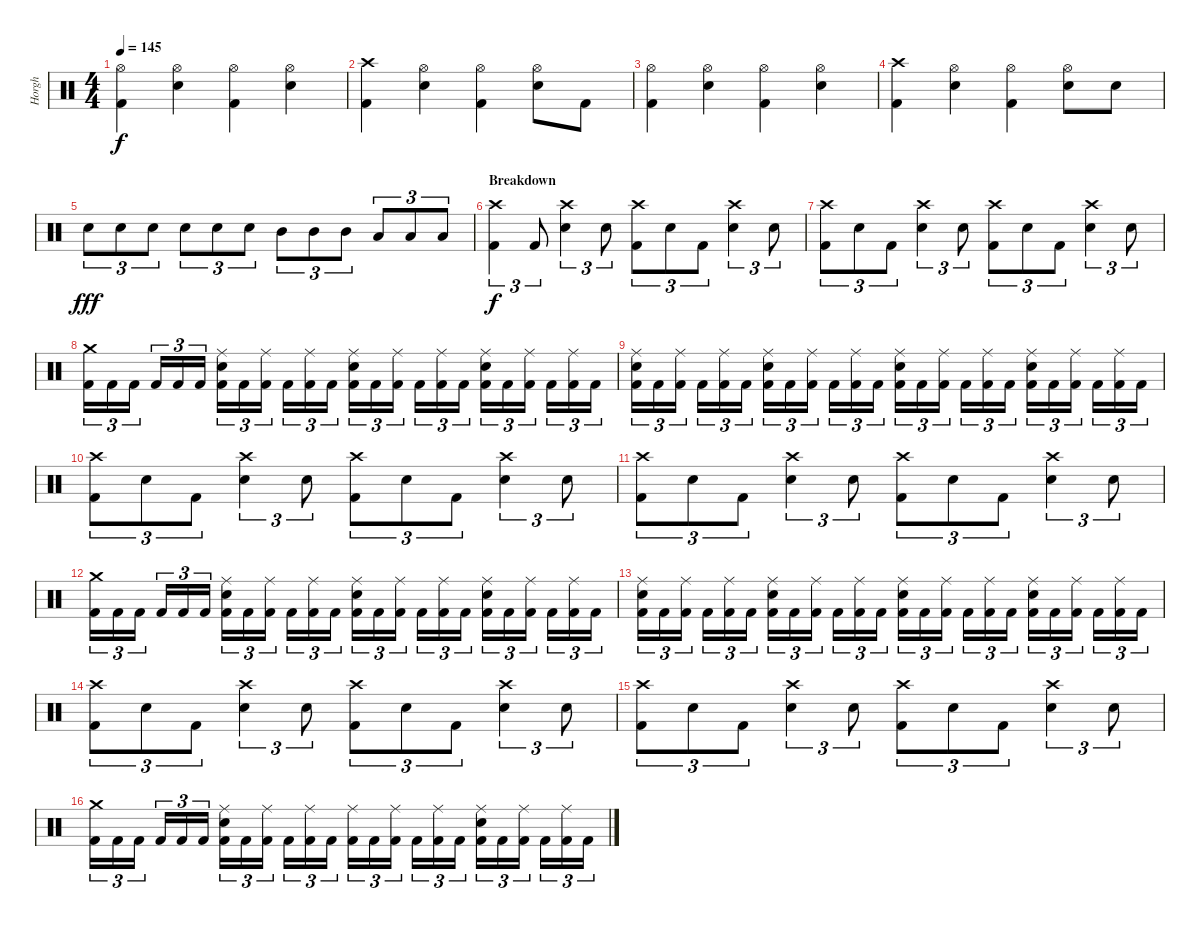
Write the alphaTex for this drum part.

\track ("Horgh" "Horgh") {instrument percussion}
\staff {score}
\articulation defaults
\ts (4 4)
\tempo 145
\clef neutral
\ks c
("Hi-Hat (open)" "Kick (hit) 2").4{dy f} ("Hi-Hat (open)" "Electric Snare (hit)").4 ("Hi-Hat (open)" "Kick (hit) 2").4 ("Hi-Hat (open)" "Electric Snare (hit)").4 |
("Crash high (hit)" "Kick (hit) 2").4 ("Hi-Hat (open)" "Electric Snare (hit)").4 ("Hi-Hat (open)" "Kick (hit) 2").4 ("Hi-Hat (open)" "Electric Snare (hit)").8 "Kick (hit) 2".8 |
("Hi-Hat (open)" "Kick (hit) 2").4 ("Hi-Hat (open)" "Electric Snare (hit)").4 ("Hi-Hat (open)" "Kick (hit) 2").4 ("Hi-Hat (open)" "Electric Snare (hit)").4 |
("Crash high (hit)" "Kick (hit) 2").4 ("Hi-Hat (open)" "Electric Snare (hit)").4 ("Hi-Hat (open)" "Kick (hit) 2").4 ("Hi-Hat (open)" "Electric Snare (hit)").8 "Electric Snare (hit)".8 |
"Electric Snare (hit)".8{tu (3 2) dy fff} "Electric Snare (hit)".8{tu (3 2)} "Electric Snare (hit)".8{tu (3 2)} "Electric Snare (hit)".8{tu (3 2)} "Electric Snare (hit)".8{tu (3 2)} "Electric Snare (hit)".8{tu (3 2)} "Mid Tom (hit)".8{tu (3 2)} "Mid Tom (hit)".8{tu (3 2)} "Mid Tom (hit)".8{tu (3 2)} "Low Tom (hit)".8{tu (3 2)} "Low Tom (hit)".8{tu (3 2)} "Low Tom (hit)".8{tu (3 2)} |
\section ("" "Breakdown")
("Crash high (hit)" "Kick (hit) 2").4{tu (3 2) dy f} "Kick (hit) 2".8{tu (3 2)} ("Crash high (hit)" "Electric Snare (hit)").4{tu (3 2)} "Electric Snare (hit)".8{tu (3 2)} ("Crash high (hit)" "Kick (hit) 2").8{tu (3 2)} "Electric Snare (hit)".8{tu (3 2)} "Kick (hit) 2".8{tu (3 2)} ("Crash high (hit)" "Electric Snare (hit)").4{tu (3 2)} "Electric Snare (hit)".8{tu (3 2)} |
("Crash high (hit)" "Kick (hit) 2").8{tu (3 2)} "Electric Snare (hit)".8{tu (3 2)} "Kick (hit) 2".8{tu (3 2)} ("Crash high (hit)" "Electric Snare (hit)").4{tu (3 2)} "Electric Snare (hit)".8{tu (3 2)} ("Crash high (hit)" "Kick (hit) 2").8{tu (3 2)} "Electric Snare (hit)".8{tu (3 2)} "Kick (hit) 2".8{tu (3 2)} ("Crash high (hit)" "Electric Snare (hit)").4{tu (3 2)} "Electric Snare (hit)".8{tu (3 2)} |
("Crash medium (hit)" "Kick (hit) 2").16{tu (3 2)} "Kick (hit) 2".16{tu (3 2)} "Kick (hit) 2".16{tu (3 2)} "Kick (hit) 2".16{tu (3 2)} "Kick (hit) 2".16{tu (3 2)} "Kick (hit) 2".16{tu (3 2)} ("Ride (middle)" "Electric Snare (hit)" "Kick (hit) 2").16{tu (3 2)} "Kick (hit) 2".16{tu (3 2)} ("Ride (middle)" "Kick (hit) 2").16{tu (3 2)} "Kick (hit) 2".16{tu (3 2)} ("Ride (middle)" "Kick (hit) 2").16{tu (3 2)} "Kick (hit) 2".16{tu (3 2)} ("Ride (middle)" "Electric Snare (hit)" "Kick (hit) 2").16{tu (3 2)} "Kick (hit) 2".16{tu (3 2)} ("Ride (middle)" "Kick (hit) 2").16{tu (3 2)} "Kick (hit) 2".16{tu (3 2)} ("Ride (middle)" "Kick (hit) 2").16{tu (3 2)} "Kick (hit) 2".16{tu (3 2)} ("Ride (middle)" "Electric Snare (hit)" "Kick (hit) 2").16{tu (3 2)} "Kick (hit) 2".16{tu (3 2)} ("Ride (middle)" "Kick (hit) 2").16{tu (3 2)} "Kick (hit) 2".16{tu (3 2)} ("Ride (middle)" "Kick (hit) 2").16{tu (3 2)} "Kick (hit) 2".16{tu (3 2)} |
("Ride (middle)" "Electric Snare (hit)" "Kick (hit) 2").16{tu (3 2)} "Kick (hit) 2".16{tu (3 2)} ("Ride (middle)" "Kick (hit) 2").16{tu (3 2)} "Kick (hit) 2".16{tu (3 2)} ("Ride (middle)" "Kick (hit) 2").16{tu (3 2)} "Kick (hit) 2".16{tu (3 2)} ("Ride (middle)" "Electric Snare (hit)" "Kick (hit) 2").16{tu (3 2)} "Kick (hit) 2".16{tu (3 2)} ("Ride (middle)" "Kick (hit) 2").16{tu (3 2)} "Kick (hit) 2".16{tu (3 2)} ("Ride (middle)" "Kick (hit) 2").16{tu (3 2)} "Kick (hit) 2".16{tu (3 2)} ("Ride (middle)" "Electric Snare (hit)" "Kick (hit) 2").16{tu (3 2)} "Kick (hit) 2".16{tu (3 2)} ("Ride (middle)" "Kick (hit) 2").16{tu (3 2)} "Kick (hit) 2".16{tu (3 2)} ("Ride (middle)" "Kick (hit) 2").16{tu (3 2)} "Kick (hit) 2".16{tu (3 2)} ("Ride (middle)" "Electric Snare (hit)" "Kick (hit) 2").16{tu (3 2)} "Kick (hit) 2".16{tu (3 2)} ("Ride (middle)" "Kick (hit) 2").16{tu (3 2)} "Kick (hit) 2".16{tu (3 2)} ("Ride (middle)" "Kick (hit) 2").16{tu (3 2)} "Kick (hit) 2".16{tu (3 2)} |
("Crash high (hit)" "Kick (hit) 2").8{tu (3 2)} "Electric Snare (hit)".8{tu (3 2)} "Kick (hit) 2".8{tu (3 2)} ("Crash high (hit)" "Electric Snare (hit)").4{tu (3 2)} "Electric Snare (hit)".8{tu (3 2)} ("Crash high (hit)" "Kick (hit) 2").8{tu (3 2)} "Electric Snare (hit)".8{tu (3 2)} "Kick (hit) 2".8{tu (3 2)} ("Crash high (hit)" "Electric Snare (hit)").4{tu (3 2)} "Electric Snare (hit)".8{tu (3 2)} |
("Crash high (hit)" "Kick (hit) 2").8{tu (3 2)} "Electric Snare (hit)".8{tu (3 2)} "Kick (hit) 2".8{tu (3 2)} ("Crash high (hit)" "Electric Snare (hit)").4{tu (3 2)} "Electric Snare (hit)".8{tu (3 2)} ("Crash high (hit)" "Kick (hit) 2").8{tu (3 2)} "Electric Snare (hit)".8{tu (3 2)} "Kick (hit) 2".8{tu (3 2)} ("Crash high (hit)" "Electric Snare (hit)").4{tu (3 2)} "Electric Snare (hit)".8{tu (3 2)} |
("Crash medium (hit)" "Kick (hit) 2").16{tu (3 2)} "Kick (hit) 2".16{tu (3 2)} "Kick (hit) 2".16{tu (3 2)} "Kick (hit) 2".16{tu (3 2)} "Kick (hit) 2".16{tu (3 2)} "Kick (hit) 2".16{tu (3 2)} ("Ride (middle)" "Electric Snare (hit)" "Kick (hit) 2").16{tu (3 2)} "Kick (hit) 2".16{tu (3 2)} ("Ride (middle)" "Kick (hit) 2").16{tu (3 2)} "Kick (hit) 2".16{tu (3 2)} ("Ride (middle)" "Kick (hit) 2").16{tu (3 2)} "Kick (hit) 2".16{tu (3 2)} ("Ride (middle)" "Electric Snare (hit)" "Kick (hit) 2").16{tu (3 2)} "Kick (hit) 2".16{tu (3 2)} ("Ride (middle)" "Kick (hit) 2").16{tu (3 2)} "Kick (hit) 2".16{tu (3 2)} ("Ride (middle)" "Kick (hit) 2").16{tu (3 2)} "Kick (hit) 2".16{tu (3 2)} ("Ride (middle)" "Electric Snare (hit)" "Kick (hit) 2").16{tu (3 2)} "Kick (hit) 2".16{tu (3 2)} ("Ride (middle)" "Kick (hit) 2").16{tu (3 2)} "Kick (hit) 2".16{tu (3 2)} ("Ride (middle)" "Kick (hit) 2").16{tu (3 2)} "Kick (hit) 2".16{tu (3 2)} |
("Ride (middle)" "Electric Snare (hit)" "Kick (hit) 2").16{tu (3 2)} "Kick (hit) 2".16{tu (3 2)} ("Ride (middle)" "Kick (hit) 2").16{tu (3 2)} "Kick (hit) 2".16{tu (3 2)} ("Ride (middle)" "Kick (hit) 2").16{tu (3 2)} "Kick (hit) 2".16{tu (3 2)} ("Ride (middle)" "Electric Snare (hit)" "Kick (hit) 2").16{tu (3 2)} "Kick (hit) 2".16{tu (3 2)} ("Ride (middle)" "Kick (hit) 2").16{tu (3 2)} "Kick (hit) 2".16{tu (3 2)} ("Ride (middle)" "Kick (hit) 2").16{tu (3 2)} "Kick (hit) 2".16{tu (3 2)} ("Ride (middle)" "Electric Snare (hit)" "Kick (hit) 2").16{tu (3 2)} "Kick (hit) 2".16{tu (3 2)} ("Ride (middle)" "Kick (hit) 2").16{tu (3 2)} "Kick (hit) 2".16{tu (3 2)} ("Ride (middle)" "Kick (hit) 2").16{tu (3 2)} "Kick (hit) 2".16{tu (3 2)} ("Ride (middle)" "Electric Snare (hit)" "Kick (hit) 2").16{tu (3 2)} "Kick (hit) 2".16{tu (3 2)} ("Ride (middle)" "Kick (hit) 2").16{tu (3 2)} "Kick (hit) 2".16{tu (3 2)} ("Ride (middle)" "Kick (hit) 2").16{tu (3 2)} "Kick (hit) 2".16{tu (3 2)} |
("Crash high (hit)" "Kick (hit) 2").8{tu (3 2)} "Electric Snare (hit)".8{tu (3 2)} "Kick (hit) 2".8{tu (3 2)} ("Crash high (hit)" "Electric Snare (hit)").4{tu (3 2)} "Electric Snare (hit)".8{tu (3 2)} ("Crash high (hit)" "Kick (hit) 2").8{tu (3 2)} "Electric Snare (hit)".8{tu (3 2)} "Kick (hit) 2".8{tu (3 2)} ("Crash high (hit)" "Electric Snare (hit)").4{tu (3 2)} "Electric Snare (hit)".8{tu (3 2)} |
("Crash high (hit)" "Kick (hit) 2").8{tu (3 2)} "Electric Snare (hit)".8{tu (3 2)} "Kick (hit) 2".8{tu (3 2)} ("Crash high (hit)" "Electric Snare (hit)").4{tu (3 2)} "Electric Snare (hit)".8{tu (3 2)} ("Crash high (hit)" "Kick (hit) 2").8{tu (3 2)} "Electric Snare (hit)".8{tu (3 2)} "Kick (hit) 2".8{tu (3 2)} ("Crash high (hit)" "Electric Snare (hit)").4{tu (3 2)} "Electric Snare (hit)".8{tu (3 2)} |
("Crash medium (hit)" "Kick (hit) 2").16{tu (3 2)} "Kick (hit) 2".16{tu (3 2)} "Kick (hit) 2".16{tu (3 2)} "Kick (hit) 2".16{tu (3 2)} "Kick (hit) 2".16{tu (3 2)} "Kick (hit) 2".16{tu (3 2)} ("Ride (middle)" "Electric Snare (hit)" "Kick (hit) 2").16{tu (3 2)} "Kick (hit) 2".16{tu (3 2)} ("Ride (middle)" "Kick (hit) 2").16{tu (3 2)} "Kick (hit) 2".16{tu (3 2)} ("Ride (middle)" "Kick (hit) 2").16{tu (3 2)} "Kick (hit) 2".16{tu (3 2)} ("Ride (middle)" "Kick (hit) 2").16{tu (3 2)} "Kick (hit) 2".16{tu (3 2)} ("Ride (middle)" "Kick (hit) 2").16{tu (3 2)} "Kick (hit) 2".16{tu (3 2)} ("Ride (middle)" "Kick (hit) 2").16{tu (3 2)} "Kick (hit) 2".16{tu (3 2)} ("Ride (middle)" "Electric Snare (hit)" "Kick (hit) 2").16{tu (3 2)} "Kick (hit) 2".16{tu (3 2)} ("Ride (middle)" "Kick (hit) 2").16{tu (3 2)} "Kick (hit) 2".16{tu (3 2)} ("Ride (middle)" "Kick (hit) 2").16{tu (3 2)} "Kick (hit) 2".16{tu (3 2)}
